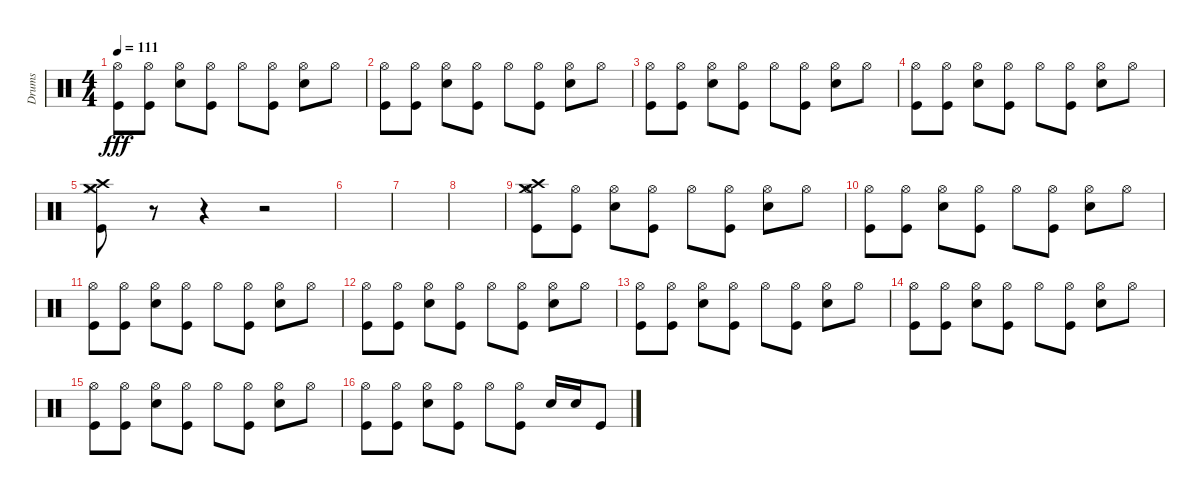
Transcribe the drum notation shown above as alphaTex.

\track ("Drums" "Drums") {instrument percussion}
\staff {score}
\articulation defaults
\ts (4 4)
\tempo 111
\clef neutral
\ks c
("Hi-Hat (open)" "Kick (hit)").8{dy fff} ("Hi-Hat (open)" "Kick (hit)").8 ("Hi-Hat (open)" "Snare (hit) 2").8 ("Hi-Hat (open)" "Kick (hit)").8 "Hi-Hat (open)".8 ("Hi-Hat (open)" "Kick (hit)").8 ("Hi-Hat (open)" "Snare (hit) 2").8 "Hi-Hat (open)".8 |
("Hi-Hat (open)" "Kick (hit)").8 ("Hi-Hat (open)" "Kick (hit)").8 ("Hi-Hat (open)" "Snare (hit) 2").8 ("Hi-Hat (open)" "Kick (hit)").8 "Hi-Hat (open)".8 ("Hi-Hat (open)" "Kick (hit)").8 ("Hi-Hat (open)" "Snare (hit) 2").8 "Hi-Hat (open)".8 |
("Hi-Hat (open)" "Kick (hit)").8 ("Hi-Hat (open)" "Kick (hit)").8 ("Hi-Hat (open)" "Snare (hit) 2").8 ("Hi-Hat (open)" "Kick (hit)").8 "Hi-Hat (open)".8 ("Hi-Hat (open)" "Kick (hit)").8 ("Hi-Hat (open)" "Snare (hit) 2").8 "Hi-Hat (open)".8 |
("Hi-Hat (open)" "Kick (hit)").8 ("Hi-Hat (open)" "Kick (hit)").8 ("Hi-Hat (open)" "Snare (hit) 2").8 ("Hi-Hat (open)" "Kick (hit)").8 "Hi-Hat (open)".8 ("Hi-Hat (open)" "Kick (hit)").8 ("Hi-Hat (open)" "Snare (hit) 2").8 "Hi-Hat (open)".8 |
("Crash medium (hit)" "Crash high (hit)" "Hi-Hat (closed)" "Kick (hit)").8 r.8 r.4 r.2 |
|
|
|
("Hi-Hat (open)" "Crash high (hit)" "Crash medium (hit)" "Kick (hit)").8 ("Hi-Hat (open)" "Kick (hit)").8 ("Hi-Hat (open)" "Snare (hit) 2").8 ("Hi-Hat (open)" "Kick (hit)").8 "Hi-Hat (open)".8 ("Hi-Hat (open)" "Kick (hit)").8 ("Hi-Hat (open)" "Snare (hit) 2").8 "Hi-Hat (open)".8 |
("Hi-Hat (open)" "Kick (hit)").8 ("Hi-Hat (open)" "Kick (hit)").8 ("Hi-Hat (open)" "Snare (hit) 2").8 ("Hi-Hat (open)" "Kick (hit)").8 "Hi-Hat (open)".8 ("Hi-Hat (open)" "Kick (hit)").8 ("Hi-Hat (open)" "Snare (hit) 2").8 "Hi-Hat (open)".8 |
("Hi-Hat (open)" "Kick (hit)").8 ("Hi-Hat (open)" "Kick (hit)").8 ("Hi-Hat (open)" "Snare (hit) 2").8 ("Hi-Hat (open)" "Kick (hit)").8 "Hi-Hat (open)".8 ("Hi-Hat (open)" "Kick (hit)").8 ("Hi-Hat (open)" "Snare (hit) 2").8 "Hi-Hat (open)".8 |
("Hi-Hat (open)" "Kick (hit)").8 ("Hi-Hat (open)" "Kick (hit)").8 ("Hi-Hat (open)" "Snare (hit) 2").8 ("Hi-Hat (open)" "Kick (hit)").8 "Hi-Hat (open)".8 ("Hi-Hat (open)" "Kick (hit)").8 ("Hi-Hat (open)" "Snare (hit) 2").8 "Hi-Hat (open)".8 |
("Hi-Hat (open)" "Kick (hit)").8 ("Hi-Hat (open)" "Kick (hit)").8 ("Hi-Hat (open)" "Snare (hit) 2").8 ("Hi-Hat (open)" "Kick (hit)").8 "Hi-Hat (open)".8 ("Hi-Hat (open)" "Kick (hit)").8 ("Hi-Hat (open)" "Snare (hit) 2").8 "Hi-Hat (open)".8 |
("Hi-Hat (open)" "Kick (hit)").8 ("Hi-Hat (open)" "Kick (hit)").8 ("Hi-Hat (open)" "Snare (hit) 2").8 ("Hi-Hat (open)" "Kick (hit)").8 "Hi-Hat (open)".8 ("Hi-Hat (open)" "Kick (hit)").8 ("Hi-Hat (open)" "Snare (hit) 2").8 "Hi-Hat (open)".8 |
("Hi-Hat (open)" "Kick (hit)").8 ("Hi-Hat (open)" "Kick (hit)").8 ("Hi-Hat (open)" "Snare (hit) 2").8 ("Hi-Hat (open)" "Kick (hit)").8 "Hi-Hat (open)".8 ("Hi-Hat (open)" "Kick (hit)").8 ("Hi-Hat (open)" "Snare (hit) 2").8 "Hi-Hat (open)".8 |
("Hi-Hat (open)" "Kick (hit)").8 ("Hi-Hat (open)" "Kick (hit)").8 ("Hi-Hat (open)" "Snare (hit) 2").8 ("Hi-Hat (open)" "Kick (hit)").8 "Hi-Hat (open)".8 ("Hi-Hat (open)" "Kick (hit)").8 "Snare (hit) 2".16 "Snare (hit) 2".16 "Kick (hit)".8
